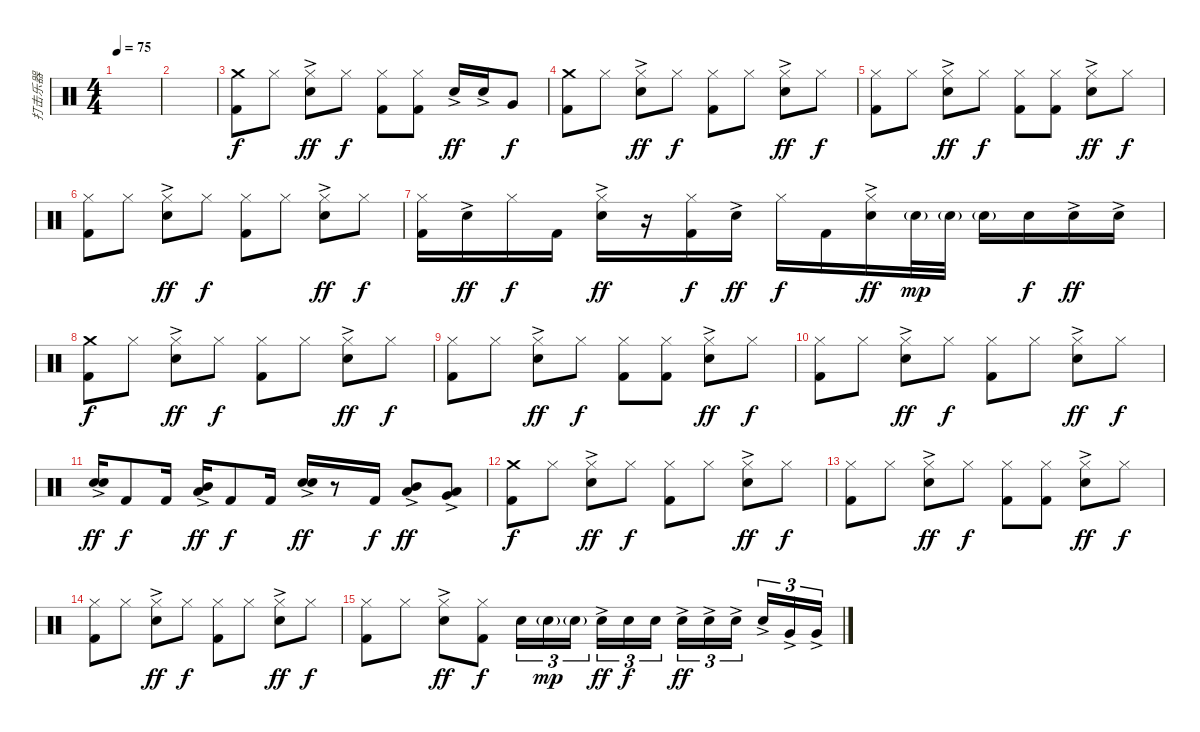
\track ("打击乐器" "打击乐器") {instrument percussion}
\staff {score}
\articulation defaults
\ts (4 4)
\tempo 75
\clef neutral
\ks c
|
|
("Crash medium (hit)" "Kick (hit) 2").8 "Hi-Hat (closed)".8 ("Hi-Hat (closed)" "Electric Snare (hit)"{ac}).8{dy ff} "Hi-Hat (closed)".8{dy f} ("Hi-Hat (closed)" "Kick (hit) 2").8 ("Hi-Hat (closed)" "Kick (hit) 2").8 "Electric Snare (hit)"{ac}.16{dy ff} "Electric Snare (hit)"{ac}.16 "Very Low Tom (hit)".8{dy f} |
("Crash medium (hit)" "Kick (hit) 2").8 "Hi-Hat (closed)".8 ("Hi-Hat (closed)" "Electric Snare (hit)"{ac}).8{dy ff} "Hi-Hat (closed)".8{dy f} ("Hi-Hat (closed)" "Kick (hit) 2").8 "Hi-Hat (closed)".8 ("Hi-Hat (closed)" "Electric Snare (hit)"{ac}).8{dy ff} "Hi-Hat (closed)".8{dy f} |
("Hi-Hat (closed)" "Kick (hit) 2").8 "Hi-Hat (closed)".8 ("Hi-Hat (closed)" "Electric Snare (hit)"{ac}).8{dy ff} "Hi-Hat (closed)".8{dy f} ("Hi-Hat (closed)" "Kick (hit) 2").8 ("Hi-Hat (closed)" "Kick (hit) 2").8 ("Hi-Hat (closed)" "Electric Snare (hit)"{ac}).8{dy ff} "Hi-Hat (closed)".8{dy f} |
("Hi-Hat (closed)" "Kick (hit) 2").8 "Hi-Hat (closed)".8 ("Hi-Hat (closed)" "Electric Snare (hit)"{ac}).8{dy ff} "Hi-Hat (closed)".8{dy f} ("Hi-Hat (closed)" "Kick (hit) 2").8 "Hi-Hat (closed)".8 ("Hi-Hat (closed)" "Electric Snare (hit)"{ac}).8{dy ff} "Hi-Hat (closed)".8{dy f} |
("Hi-Hat (closed)" "Kick (hit) 2").16 "Electric Snare (hit)"{ac}.16{dy ff} "Hi-Hat (closed)".16{dy f} "Kick (hit) 2".16 ("Hi-Hat (closed)" "Electric Snare (hit)"{ac}).16{dy ff} r.16 ("Hi-Hat (closed)" "Kick (hit) 2").16{dy f} "Electric Snare (hit)"{ac}.16{dy ff} "Hi-Hat (closed)".16{dy f} "Kick (hit) 2".16 ("Hi-Hat (closed)" "Electric Snare (hit)"{ac}).16{dy ff} "Electric Snare (hit)"{g}.32{dy mp} "Electric Snare (hit)"{g}.32 "Electric Snare (hit)"{g}.16 "Electric Snare (hit)".16{dy f} "Electric Snare (hit)"{ac}.16{dy ff} "Electric Snare (hit)"{ac}.16 |
("Crash medium (hit)" "Kick (hit) 2").8{dy f} "Hi-Hat (closed)".8 ("Hi-Hat (closed)" "Electric Snare (hit)"{ac}).8{dy ff} "Hi-Hat (closed)".8{dy f} ("Hi-Hat (closed)" "Kick (hit) 2").8 "Hi-Hat (closed)".8 ("Hi-Hat (closed)" "Electric Snare (hit)"{ac}).8{dy ff} "Hi-Hat (closed)".8{dy f} |
("Hi-Hat (closed)" "Kick (hit) 2").8 "Hi-Hat (closed)".8 ("Hi-Hat (closed)" "Electric Snare (hit)"{ac}).8{dy ff} "Hi-Hat (closed)".8{dy f} ("Hi-Hat (closed)" "Kick (hit) 2").8 ("Hi-Hat (closed)" "Kick (hit) 2").8 ("Hi-Hat (closed)" "Electric Snare (hit)"{ac}).8{dy ff} "Hi-Hat (closed)".8{dy f} |
("Hi-Hat (closed)" "Kick (hit) 2").8 "Hi-Hat (closed)".8 ("Hi-Hat (closed)" "Electric Snare (hit)"{ac}).8{dy ff} "Hi-Hat (closed)".8{dy f} ("Hi-Hat (closed)" "Kick (hit) 2").8 "Hi-Hat (closed)".8 ("Hi-Hat (closed)" "Electric Snare (hit)"{ac}).8{dy ff} "Hi-Hat (closed)".8{dy f} |
("Electric Snare (hit)"{ac} "Snare (hit) 2"{ac}).16{dy ff} "Kick (hit) 2".8{dy f} "Kick (hit) 2".16 ("Low Tom (hit)"{ac} "Mid Tom (hit)"{ac}).16{dy ff} "Kick (hit) 2".8{dy f} "Kick (hit) 2".16 ("Electric Snare (hit)"{ac} "Snare (hit) 2"{ac}).16{dy ff} r.8 "Kick (hit) 2".16{dy f} ("Mid Tom (hit)"{ac} "Low Tom (hit)"{ac}).8{dy ff} ("Low Tom (hit)"{ac} "Very Low Tom (hit)"{ac}).8 |
("Crash medium (hit)" "Kick (hit) 2").8{dy f} "Hi-Hat (closed)".8 ("Hi-Hat (closed)" "Electric Snare (hit)"{ac}).8{dy ff} "Hi-Hat (closed)".8{dy f} ("Hi-Hat (closed)" "Kick (hit) 2").8 "Hi-Hat (closed)".8 ("Hi-Hat (closed)" "Electric Snare (hit)"{ac}).8{dy ff} "Hi-Hat (closed)".8{dy f} |
("Hi-Hat (closed)" "Kick (hit) 2").8 "Hi-Hat (closed)".8 ("Hi-Hat (closed)" "Electric Snare (hit)"{ac}).8{dy ff} "Hi-Hat (closed)".8{dy f} ("Hi-Hat (closed)" "Kick (hit) 2").8 ("Hi-Hat (closed)" "Kick (hit) 2").8 ("Hi-Hat (closed)" "Electric Snare (hit)"{ac}).8{dy ff} "Hi-Hat (closed)".8{dy f} |
("Hi-Hat (closed)" "Kick (hit) 2").8 "Hi-Hat (closed)".8 ("Hi-Hat (closed)" "Electric Snare (hit)"{ac}).8{dy ff} "Hi-Hat (closed)".8{dy f} ("Hi-Hat (closed)" "Kick (hit) 2").8 "Hi-Hat (closed)".8 ("Hi-Hat (closed)" "Electric Snare (hit)"{ac}).8{dy ff} "Hi-Hat (closed)".8{dy f} |
("Hi-Hat (closed)" "Kick (hit) 2").8 "Hi-Hat (closed)".8 ("Hi-Hat (closed)" "Electric Snare (hit)"{ac}).8{dy ff} ("Hi-Hat (closed)" "Kick (hit) 2").8{dy f} "Electric Snare (hit)".16{tu (3 2)} "Electric Snare (hit)"{g}.16{tu (3 2) dy mp} "Electric Snare (hit)"{g}.16{tu (3 2) beam splitsecondary} "Electric Snare (hit)"{ac}.16{tu (3 2) dy ff} "Electric Snare (hit)".16{tu (3 2) dy f} "Electric Snare (hit)".16{tu (3 2)} "Electric Snare (hit)"{ac}.16{tu (3 2) dy ff} "Electric Snare (hit)"{ac}.16{tu (3 2)} "Electric Snare (hit)"{ac}.16{tu (3 2) beam splitsecondary} "Electric Snare (hit)"{ac}.16{tu (3 2)} "Very Low Tom (hit)"{ac}.16{tu (3 2)} "Very Low Tom (hit)"{ac}.16{tu (3 2)}
